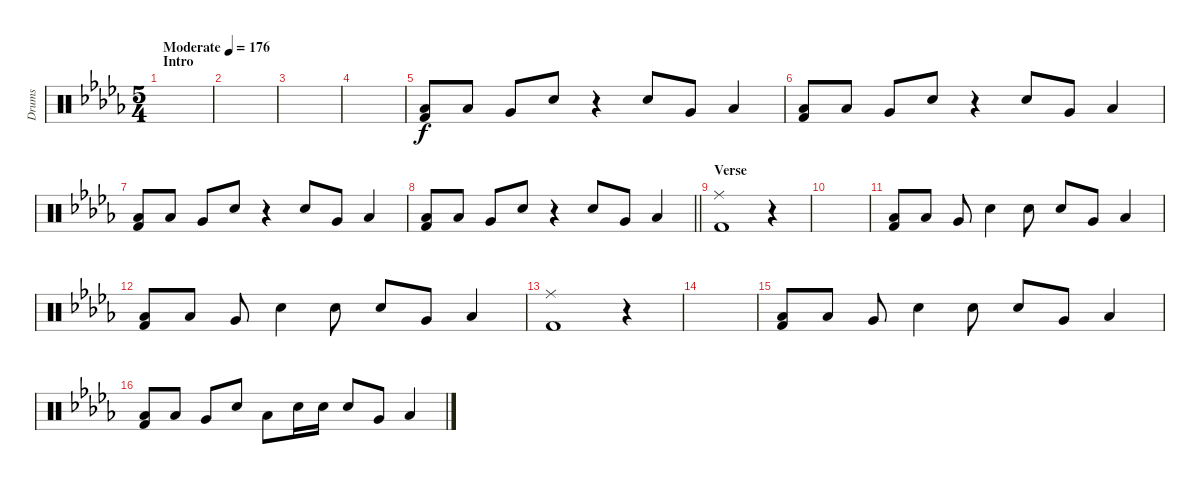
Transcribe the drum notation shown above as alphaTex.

\track ("Drums" "Drums") {instrument percussion}
\staff {score}
\articulation defaults
\ts (5 4)
\section ("" "Intro")
\tempo (176 "Moderate")
\clef neutral
\ks db
|
|
|
|
("Low Floor Tom (hit)" "Kick (hit) 2").8 "Low Floor Tom (hit)".8 "Very Low Tom (hit)".8 "Snare (hit) 2".8 r.4 "Snare (hit) 2".8 "Very Low Tom (hit)".8 "Low Floor Tom (hit)".4 |
("Low Floor Tom (hit)" "Kick (hit) 2").8 "Low Floor Tom (hit)".8 "Very Low Tom (hit)".8 "Snare (hit) 2".8 r.4 "Snare (hit) 2".8 "Very Low Tom (hit)".8 "Low Floor Tom (hit)".4 |
("Low Floor Tom (hit)" "Kick (hit) 2").8 "Low Floor Tom (hit)".8 "Very Low Tom (hit)".8 "Snare (hit) 2".8 r.4 "Snare (hit) 2".8 "Very Low Tom (hit)".8 "Low Floor Tom (hit)".4 |
\barLineRight lightlight
("Low Floor Tom (hit)" "Kick (hit) 2").8 "Low Floor Tom (hit)".8 "Very Low Tom (hit)".8 "Snare (hit) 2".8 r.4 "Snare (hit) 2".8 "Very Low Tom (hit)".8 "Low Floor Tom (hit)".4 |
\section ("" "Verse")
("Ride (middle)" "Kick (hit) 2").1 r.4 |
|
("Low Floor Tom (hit)" "Kick (hit) 2").8 "Low Floor Tom (hit)".8 "Very Low Tom (hit)".8 "Snare (hit) 2".4 "Snare (hit) 2".8 "Snare (hit) 2".8 "Very Low Tom (hit)".8 "Low Floor Tom (hit)".4 |
("Low Floor Tom (hit)" "Kick (hit) 2").8 "Low Floor Tom (hit)".8 "Very Low Tom (hit)".8 "Snare (hit) 2".4 "Snare (hit) 2".8 "Snare (hit) 2".8 "Very Low Tom (hit)".8 "Low Floor Tom (hit)".4 |
("Ride (middle)" "Kick (hit) 2").1 r.4 |
|
("Low Floor Tom (hit)" "Kick (hit) 2").8 "Low Floor Tom (hit)".8 "Very Low Tom (hit)".8 "Snare (hit) 2".4 "Snare (hit) 2".8 "Snare (hit) 2".8 "Very Low Tom (hit)".8 "Low Floor Tom (hit)".4 |
("Low Floor Tom (hit)" "Kick (hit) 2").8 "Low Floor Tom (hit)".8 "Very Low Tom (hit)".8 "Snare (hit) 2".8 "Low Floor Tom (hit)".8 "Snare (hit) 2".16 "Snare (hit) 2".16 "Snare (hit) 2".8 "Very Low Tom (hit)".8 "Low Floor Tom (hit)".4
